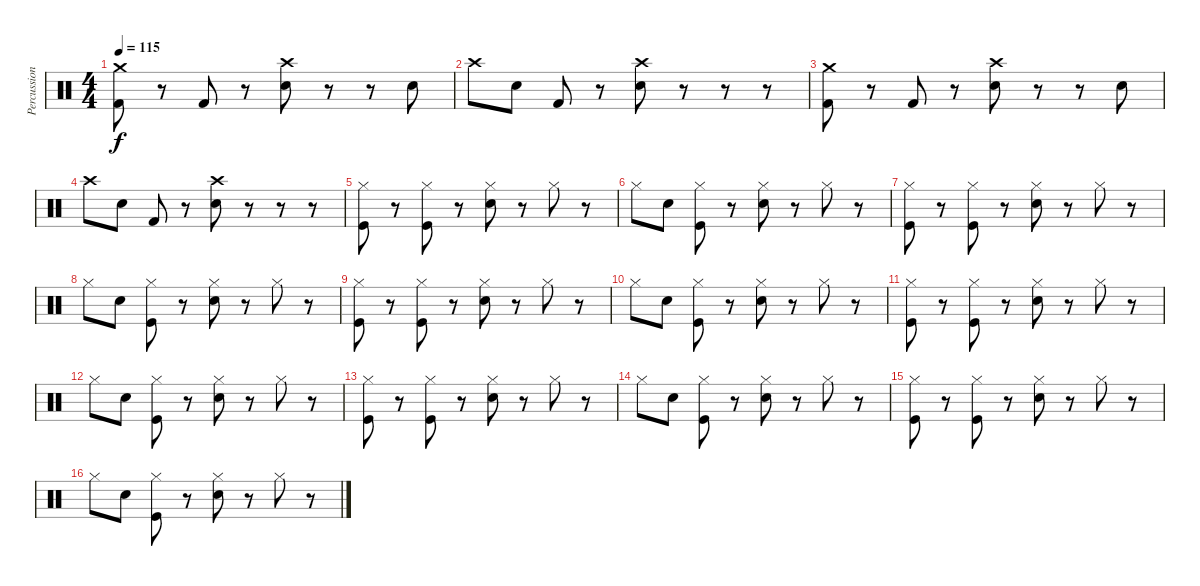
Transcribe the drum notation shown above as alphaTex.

\track ("Percussion" "Percussion") {instrument percussion}
\staff {score}
\articulation defaults
\ts (4 4)
\tempo 115
\clef neutral
\ks c
("Kick (hit) 2" "Crash medium (hit)").8{dy f} r.8 "Kick (hit) 2".8 r.8 ("Electric Snare (hit)" "Crash high (hit)").8 r.8 r.8 "Electric Snare (hit)".8 |
"Crash high (hit)".8 "Electric Snare (hit)".8 "Kick (hit) 2".8 r.8 ("Electric Snare (hit)" "Crash high (hit)").8 r.8 r.8 r.8 |
("Kick (hit) 2" "Crash medium (hit)").8 r.8 "Kick (hit) 2".8 r.8 ("Electric Snare (hit)" "Crash high (hit)").8 r.8 r.8 "Electric Snare (hit)".8 |
"Crash high (hit)".8 "Electric Snare (hit)".8 "Kick (hit) 2".8 r.8 ("Electric Snare (hit)" "Crash high (hit)").8 r.8 r.8 r.8 |
("Kick (hit)" "Hi-Hat (closed)").8 r.8 ("Kick (hit)" "Hi-Hat (closed)").8 r.8 ("Snare (hit) 2" "Hi-Hat (closed)").8 r.8 "Hi-Hat (closed)".8 r.8 |
"Hi-Hat (closed)".8 "Snare (hit) 2".8 ("Kick (hit)" "Hi-Hat (closed)").8 r.8 ("Snare (hit) 2" "Hi-Hat (closed)").8 r.8 "Hi-Hat (closed)".8 r.8 |
("Kick (hit)" "Hi-Hat (closed)").8 r.8 ("Kick (hit)" "Hi-Hat (closed)").8 r.8 ("Snare (hit) 2" "Hi-Hat (closed)").8 r.8 "Hi-Hat (closed)".8 r.8 |
"Hi-Hat (closed)".8 "Snare (hit) 2".8 ("Kick (hit)" "Hi-Hat (closed)").8 r.8 ("Snare (hit) 2" "Hi-Hat (closed)").8 r.8 "Hi-Hat (closed)".8 r.8 |
("Kick (hit)" "Hi-Hat (closed)").8 r.8 ("Kick (hit)" "Hi-Hat (closed)").8 r.8 ("Snare (hit) 2" "Hi-Hat (closed)").8 r.8 "Hi-Hat (closed)".8 r.8 |
"Hi-Hat (closed)".8 "Snare (hit) 2".8 ("Kick (hit)" "Hi-Hat (closed)").8 r.8 ("Snare (hit) 2" "Hi-Hat (closed)").8 r.8 "Hi-Hat (closed)".8 r.8 |
("Kick (hit)" "Hi-Hat (closed)").8 r.8 ("Kick (hit)" "Hi-Hat (closed)").8 r.8 ("Snare (hit) 2" "Hi-Hat (closed)").8 r.8 "Hi-Hat (closed)".8 r.8 |
"Hi-Hat (closed)".8 "Snare (hit) 2".8 ("Kick (hit)" "Hi-Hat (closed)").8 r.8 ("Snare (hit) 2" "Hi-Hat (closed)").8 r.8 "Hi-Hat (closed)".8 r.8 |
("Kick (hit)" "Hi-Hat (closed)").8 r.8 ("Kick (hit)" "Hi-Hat (closed)").8 r.8 ("Snare (hit) 2" "Hi-Hat (closed)").8 r.8 "Hi-Hat (closed)".8 r.8 |
"Hi-Hat (closed)".8 "Snare (hit) 2".8 ("Kick (hit)" "Hi-Hat (closed)").8 r.8 ("Snare (hit) 2" "Hi-Hat (closed)").8 r.8 "Hi-Hat (closed)".8 r.8 |
("Kick (hit)" "Hi-Hat (closed)").8 r.8 ("Kick (hit)" "Hi-Hat (closed)").8 r.8 ("Snare (hit) 2" "Hi-Hat (closed)").8 r.8 "Hi-Hat (closed)".8 r.8 |
"Hi-Hat (closed)".8 "Snare (hit) 2".8 ("Kick (hit)" "Hi-Hat (closed)").8 r.8 ("Snare (hit) 2" "Hi-Hat (closed)").8 r.8 "Hi-Hat (closed)".8 r.8
